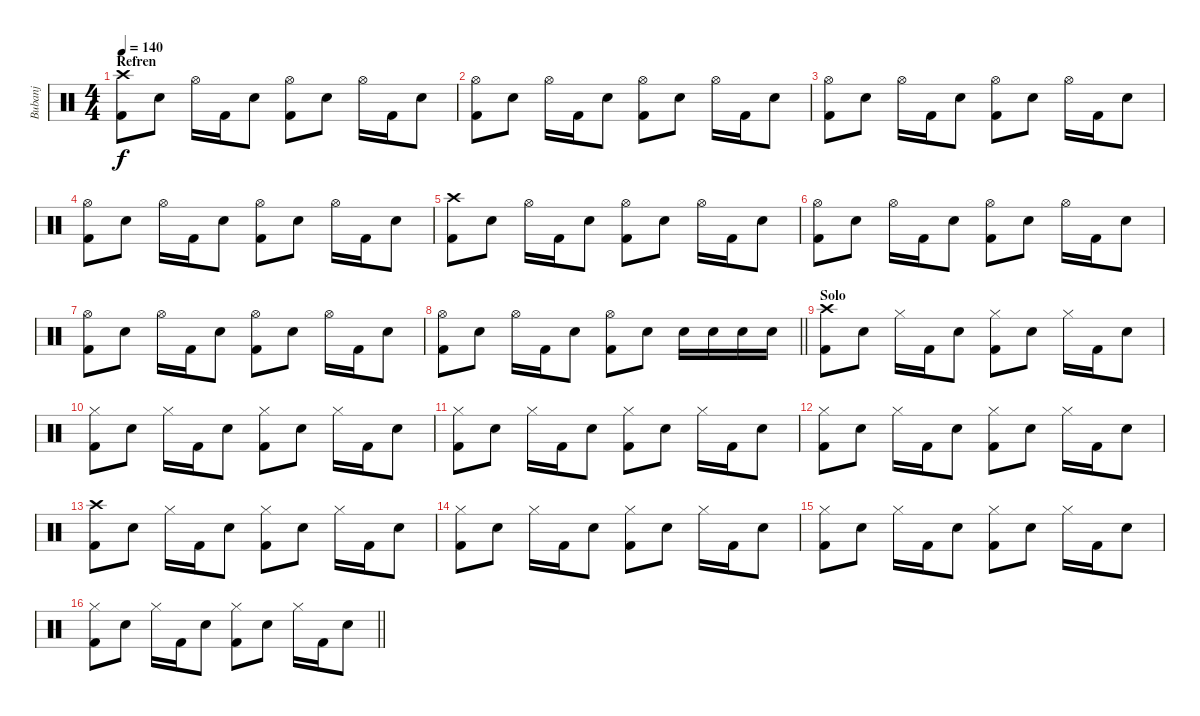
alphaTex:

\track ("Bubanj" "Bubanj") {instrument percussion}
\staff {score}
\articulation defaults
\ts (4 4)
\section ("" "Refren")
\tempo 140
\clef neutral
\ks c
("Kick (hit) 2" "Crash high (hit)").8{dy f} "Snare (hit) 2".8 "Hi-Hat (open)".16 "Kick (hit) 2".16 "Snare (hit) 2".8 ("Kick (hit) 2" "Hi-Hat (open)").8 "Snare (hit) 2".8 "Hi-Hat (open)".16 "Kick (hit) 2".16 "Snare (hit) 2".8 |
("Kick (hit) 2" "Hi-Hat (open)").8 "Snare (hit) 2".8 "Hi-Hat (open)".16 "Kick (hit) 2".16 "Snare (hit) 2".8 ("Kick (hit) 2" "Hi-Hat (open)").8 "Snare (hit) 2".8 "Hi-Hat (open)".16 "Kick (hit) 2".16 "Snare (hit) 2".8 |
("Kick (hit) 2" "Hi-Hat (open)").8 "Snare (hit) 2".8 "Hi-Hat (open)".16 "Kick (hit) 2".16 "Snare (hit) 2".8 ("Kick (hit) 2" "Hi-Hat (open)").8 "Snare (hit) 2".8 "Hi-Hat (open)".16 "Kick (hit) 2".16 "Snare (hit) 2".8 |
("Kick (hit) 2" "Hi-Hat (open)").8 "Snare (hit) 2".8 "Hi-Hat (open)".16 "Kick (hit) 2".16 "Snare (hit) 2".8 ("Kick (hit) 2" "Hi-Hat (open)").8 "Snare (hit) 2".8 "Hi-Hat (open)".16 "Kick (hit) 2".16 "Snare (hit) 2".8 |
("Kick (hit) 2" "Crash high (hit)").8 "Snare (hit) 2".8 "Hi-Hat (open)".16 "Kick (hit) 2".16 "Snare (hit) 2".8 ("Kick (hit) 2" "Hi-Hat (open)").8 "Snare (hit) 2".8 "Hi-Hat (open)".16 "Kick (hit) 2".16 "Snare (hit) 2".8 |
("Kick (hit) 2" "Hi-Hat (open)").8 "Snare (hit) 2".8 "Hi-Hat (open)".16 "Kick (hit) 2".16 "Snare (hit) 2".8 ("Kick (hit) 2" "Hi-Hat (open)").8 "Snare (hit) 2".8 "Hi-Hat (open)".16 "Kick (hit) 2".16 "Snare (hit) 2".8 |
("Kick (hit) 2" "Hi-Hat (open)").8 "Snare (hit) 2".8 "Hi-Hat (open)".16 "Kick (hit) 2".16 "Snare (hit) 2".8 ("Kick (hit) 2" "Hi-Hat (open)").8 "Snare (hit) 2".8 "Hi-Hat (open)".16 "Kick (hit) 2".16 "Snare (hit) 2".8 |
\barLineRight lightlight
("Kick (hit) 2" "Hi-Hat (open)").8 "Snare (hit) 2".8 "Hi-Hat (open)".16 "Kick (hit) 2".16 "Snare (hit) 2".8 ("Kick (hit) 2" "Hi-Hat (open)").8 "Snare (hit) 2".8 "Snare (hit) 2".16 "Snare (hit) 2".16 "Snare (hit) 2".16 "Snare (hit) 2".16 |
\section ("" "Solo")
("Kick (hit) 2" "Crash high (hit)").8 "Snare (hit) 2".8 "Hi-Hat (closed)".16 "Kick (hit) 2".16 "Snare (hit) 2".8 ("Kick (hit) 2" "Hi-Hat (closed)").8 "Snare (hit) 2".8 "Hi-Hat (closed)".16 "Kick (hit) 2".16 "Snare (hit) 2".8 |
("Kick (hit) 2" "Hi-Hat (closed)").8 "Snare (hit) 2".8 "Hi-Hat (closed)".16 "Kick (hit) 2".16 "Snare (hit) 2".8 ("Kick (hit) 2" "Hi-Hat (closed)").8 "Snare (hit) 2".8 "Hi-Hat (closed)".16 "Kick (hit) 2".16 "Snare (hit) 2".8 |
("Kick (hit) 2" "Hi-Hat (closed)").8 "Snare (hit) 2".8 "Hi-Hat (closed)".16 "Kick (hit) 2".16 "Snare (hit) 2".8 ("Kick (hit) 2" "Hi-Hat (closed)").8 "Snare (hit) 2".8 "Hi-Hat (closed)".16 "Kick (hit) 2".16 "Snare (hit) 2".8 |
("Kick (hit) 2" "Hi-Hat (closed)").8 "Snare (hit) 2".8 "Hi-Hat (closed)".16 "Kick (hit) 2".16 "Snare (hit) 2".8 ("Kick (hit) 2" "Hi-Hat (closed)").8 "Snare (hit) 2".8 "Hi-Hat (closed)".16 "Kick (hit) 2".16 "Snare (hit) 2".8 |
("Kick (hit) 2" "Crash high (hit)").8 "Snare (hit) 2".8 "Hi-Hat (closed)".16 "Kick (hit) 2".16 "Snare (hit) 2".8 ("Kick (hit) 2" "Hi-Hat (closed)").8 "Snare (hit) 2".8 "Hi-Hat (closed)".16 "Kick (hit) 2".16 "Snare (hit) 2".8 |
("Kick (hit) 2" "Hi-Hat (closed)").8 "Snare (hit) 2".8 "Hi-Hat (closed)".16 "Kick (hit) 2".16 "Snare (hit) 2".8 ("Kick (hit) 2" "Hi-Hat (closed)").8 "Snare (hit) 2".8 "Hi-Hat (closed)".16 "Kick (hit) 2".16 "Snare (hit) 2".8 |
("Kick (hit) 2" "Hi-Hat (closed)").8 "Snare (hit) 2".8 "Hi-Hat (closed)".16 "Kick (hit) 2".16 "Snare (hit) 2".8 ("Kick (hit) 2" "Hi-Hat (closed)").8 "Snare (hit) 2".8 "Hi-Hat (closed)".16 "Kick (hit) 2".16 "Snare (hit) 2".8 |
\barLineRight lightlight
("Kick (hit) 2" "Hi-Hat (closed)").8 "Snare (hit) 2".8 "Hi-Hat (closed)".16 "Kick (hit) 2".16 "Snare (hit) 2".8 ("Kick (hit) 2" "Hi-Hat (closed)").8 "Snare (hit) 2".8 "Hi-Hat (closed)".16 "Kick (hit) 2".16 "Snare (hit) 2".8
